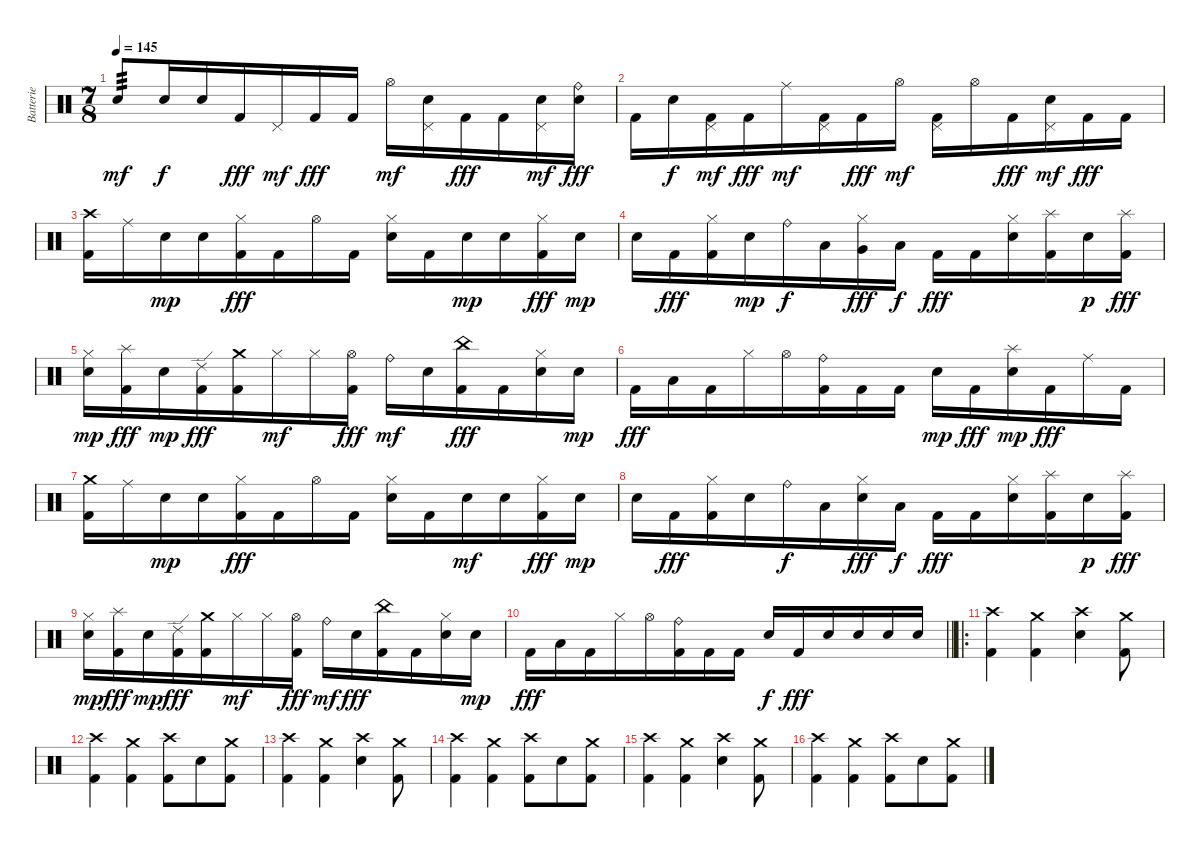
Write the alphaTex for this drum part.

\track ("Batterie" "Batterie") {instrument percussion}
\staff {score}
\articulation defaults
\ts (7 8)
\tempo 145
\clef neutral
\ks c "Electric Snare (hit)".8{tp 3 dy mf} "Electric Snare (hit)".16{dy f} "Electric Snare (hit)".16 "Kick (hit) 2".16{dy fff} "Pedal Hi-Hat (hit)".16{dy mf} "Kick (hit) 2".16{dy fff} "Kick (hit) 2".16 "Hi-Hat (open)".16{dy mf}
("Electric Snare (hit)" "Pedal Hi-Hat (hit)").16 "Kick (hit) 2".16{dy fff} "Kick (hit) 2".16 ("Electric Snare (hit)" "Pedal Hi-Hat (hit)").16{dy mf} ("Ride (bell)" "Electric Snare (hit)").16{dy fff} |
"Kick (hit) 2".16 "Electric Snare (hit)".16{dy f} ("Kick (hit) 2" "Pedal Hi-Hat (hit)").16{dy mf} "Kick (hit) 2".16{dy fff} "Ride (middle)".16{dy mf} ("Kick (hit) 2" "Pedal Hi-Hat (hit)").16 "Kick (hit) 2".16{dy fff} "Hi-Hat (open)".16{dy mf} ("Kick (hit) 2" "Pedal Hi-Hat (hit)").16 "Hi-Hat (open)".16 "Kick (hit) 2".16{dy fff} ("Electric Snare (hit)" "Pedal Hi-Hat (hit)").16{dy mf} "Kick (hit) 2".16{dy fff} "Kick (hit) 2".16 |
("Crash high (hit)" "Kick (hit) 2").16{volume 8} "Ride (middle)".16 "Electric Snare (hit)".16{dy mp} "Electric Snare (hit)".16 ("Hi-Hat (closed)" "Kick (hit) 2").16{dy fff} "Kick (hit) 2".16 "Hi-Hat (open)".16 "Kick (hit) 2".16 ("Hi-Hat (closed)" "Electric Snare (hit)").16 "Kick (hit) 2".16 "Electric Snare (hit)".16{dy mp} "Electric Snare (hit)".16 ("Hi-Hat (closed)" "Kick (hit) 2").16{dy fff} "Electric Snare (hit)".16{dy mp} |
"Electric Snare (hit)".16 "Kick (hit) 2".16{dy fff} ("Hi-Hat (closed)" "Kick (hit) 2").16 "Electric Snare (hit)".16{dy mp} "Ride (bell)".16{dy f} "Low Tom (hit)".16 ("Hi-Hat (closed)" "Very Low Tom (hit)").16{dy fff} "Low Floor Tom (hit)".16{dy f} "Kick (hit) 2".16{dy fff} "Kick (hit) 2".16 ("Hi-Hat (closed)" "Electric Snare (hit)").16 ("Splash (hit)" "Kick (hit) 2").16 "Electric Snare (hit)".16{dy p} ("Splash (hit)" "Kick (hit) 2").16{dy fff} |
("Hi-Hat (closed)" "Electric Snare (hit)").16{dy mp} ("Splash (hit)" "Kick (hit) 2").16{dy fff} "Electric Snare (hit)".16{dy mp} ("Ride (edge) 2" "Kick (hit) 2").16{dy fff} ("Crash medium (hit)" "Kick (hit) 2").16 "Hi-Hat (closed)".16{dy mf} "Hi-Hat (closed)".16 ("Hi-Hat (open)" "Kick (hit) 2").16{dy fff} "Ride (bell)".16{dy mf} "Electric Snare (hit)".16 ("China (hit)" "Kick (hit) 2").16{dy fff} "Kick (hit) 2".16 ("Hi-Hat (closed)" "Electric Snare (hit)").16 "Electric Snare (hit)".16{dy mp} |
"Kick (hit) 2".16{dy fff} "Low Floor Tom (hit)".16 "Kick (hit) 2".16 "Hi-Hat (closed)".16 "Hi-Hat (open)".16 ("Ride (bell)" "Kick (hit) 2").16 "Kick (hit) 2".16 "Kick (hit) 2".16 "Electric Snare (hit)".16{dy mp} "Kick (hit) 2".16{dy fff} ("Splash (hit)" "Electric Snare (hit)").16{dy mp} "Kick (hit) 2".16{dy fff} "Ride (middle)".16 "Kick (hit) 2".16 |
("Crash medium (hit)" "Kick (hit) 2").16 "Ride (middle)".16 "Electric Snare (hit)".16{dy mp} "Electric Snare (hit)".16 ("Hi-Hat (closed)" "Kick (hit) 2").16{dy fff} "Kick (hit) 2".16 "Hi-Hat (open)".16 "Kick (hit) 2".16 ("Hi-Hat (closed)" "Electric Snare (hit)").16 "Kick (hit) 2".16 "Electric Snare (hit)".16{dy mf} "Electric Snare (hit)".16 ("Hi-Hat (closed)" "Kick (hit) 2").16{dy fff} "Electric Snare (hit)".16{dy mp} |
"Electric Snare (hit)".16 "Kick (hit) 2".16{dy fff} ("Hi-Hat (closed)" "Kick (hit) 2").16 "Electric Snare (hit)".16 "Ride (bell)".16{dy f} "Low Tom (hit)".16 ("Hi-Hat (closed)" "Electric Snare (hit)").16{dy fff} "Low Floor Tom (hit)".16{dy f} "Kick (hit) 2".16{dy fff} "Kick (hit) 2".16 ("Hi-Hat (closed)" "Electric Snare (hit)").16 ("Splash (hit)" "Kick (hit) 2").16 "Electric Snare (hit)".16{dy p} ("Splash (hit)" "Kick (hit) 2").16{dy fff} |
("Hi-Hat (closed)" "Electric Snare (hit)").16{dy mp} ("Splash (hit)" "Kick (hit) 2").16{dy fff} "Electric Snare (hit)".16{dy mp} ("Ride (edge) 2" "Kick (hit) 2").16{dy fff} ("Crash medium (hit)" "Kick (hit) 2").16 "Hi-Hat (closed)".16{dy mf} "Hi-Hat (closed)".16 ("Hi-Hat (open)" "Kick (hit) 2").16{dy fff} "Ride (bell)".16{dy mf} "Electric Snare (hit)".16{dy fff} ("China (hit)" "Kick (hit) 2").16 "Kick (hit) 2".16 ("Hi-Hat (closed)" "Electric Snare (hit)").16 "Electric Snare (hit)".16{dy mp} |
\barLineRight lightlight "Kick (hit) 2".16{dy fff} "Low Floor Tom (hit)".16 "Kick (hit) 2".16 "Hi-Hat (closed)".16 "Hi-Hat (open)".16
("Ride (bell)" "Kick (hit) 2").16 "Kick (hit) 2".16 "Kick (hit) 2".16 "Electric Snare (hit)".16{dy f} "Kick (hit) 2".16{dy fff} "Electric Snare (hit)".16 "Electric Snare (hit)".16 "Electric Snare (hit)".16 "Electric Snare (hit)".16 |
\ro
\section ("" "")
("Crash high (hit)" "Kick (hit) 2").4{volume 12} ("Crash medium (hit)" "Kick (hit) 2").4 ("Crash high (hit)" "Electric Snare (hit)").4 ("Crash medium (hit)" "Kick (hit) 2").8 |
("Crash high (hit)" "Kick (hit) 2").4 ("Crash medium (hit)" "Kick (hit) 2").4 ("Crash high (hit)" "Kick (hit) 2").8 "Electric Snare (hit)".8 ("Crash medium (hit)" "Kick (hit) 2").8 |
("Crash high (hit)" "Kick (hit) 2").4 ("Crash medium (hit)" "Kick (hit) 2").4 ("Crash high (hit)" "Electric Snare (hit)").4 ("Crash medium (hit)" "Kick (hit) 2").8 |
("Crash high (hit)" "Kick (hit) 2").4 ("Crash medium (hit)" "Kick (hit) 2").4 ("Crash high (hit)" "Kick (hit) 2").8 "Electric Snare (hit)".8 ("Crash medium (hit)" "Kick (hit) 2").8 |
("Crash high (hit)" "Kick (hit) 2").4 ("Crash medium (hit)" "Kick (hit) 2").4 ("Crash high (hit)" "Electric Snare (hit)").4 ("Crash medium (hit)" "Kick (hit) 2").8 |
("Crash high (hit)" "Kick (hit) 2").4 ("Crash medium (hit)" "Kick (hit) 2").4 ("Crash high (hit)" "Kick (hit) 2").8 "Electric Snare (hit)".8 ("Crash medium (hit)" "Kick (hit) 2").8
